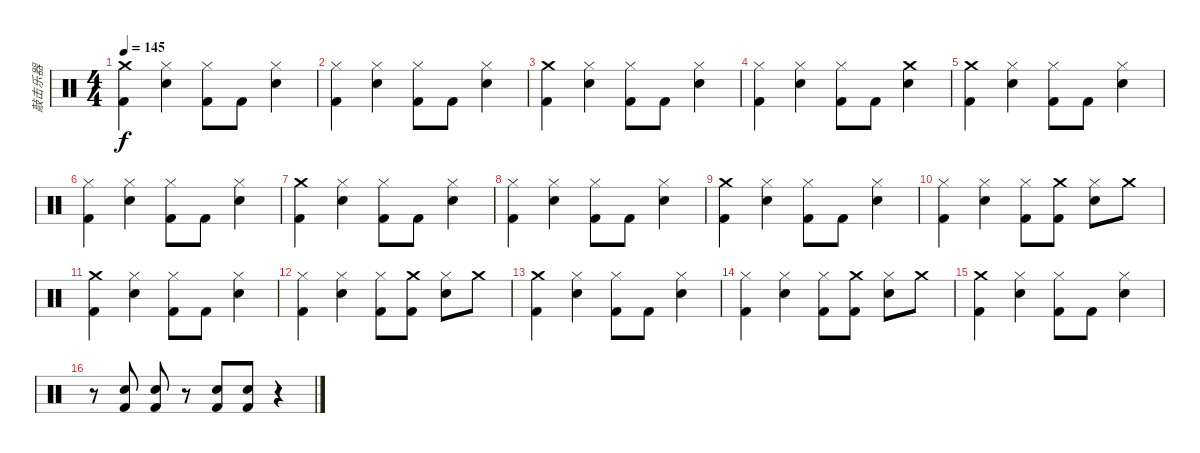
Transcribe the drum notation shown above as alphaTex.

\track ("敲击乐器" "敲击乐器") {instrument percussion}
\staff {score}
\articulation defaults
\ts (4 4)
\tempo 145
\clef neutral
\ks c
("Crash medium (hit)" "Kick (hit) 2").4{dy f} ("Hi-Hat (closed)" "Electric Snare (hit)").4 ("Hi-Hat (closed)" "Kick (hit) 2").8 "Kick (hit) 2".8 ("Hi-Hat (closed)" "Electric Snare (hit)").4 |
("Hi-Hat (closed)" "Kick (hit) 2").4 ("Hi-Hat (closed)" "Electric Snare (hit)").4 ("Hi-Hat (closed)" "Kick (hit) 2").8 "Kick (hit) 2".8 ("Hi-Hat (closed)" "Electric Snare (hit)").4 |
("Crash medium (hit)" "Kick (hit) 2").4 ("Hi-Hat (closed)" "Electric Snare (hit)").4 ("Hi-Hat (closed)" "Kick (hit) 2").8 "Kick (hit) 2".8 ("Hi-Hat (closed)" "Electric Snare (hit)").4 |
("Hi-Hat (closed)" "Kick (hit) 2").4 ("Hi-Hat (closed)" "Electric Snare (hit)").4 ("Hi-Hat (closed)" "Kick (hit) 2").8 "Kick (hit) 2".8 ("Crash medium (hit)" "Electric Snare (hit)").4 |
("Crash medium (hit)" "Kick (hit) 2").4 ("Hi-Hat (closed)" "Electric Snare (hit)").4 ("Hi-Hat (closed)" "Kick (hit) 2").8 "Kick (hit) 2".8 ("Hi-Hat (closed)" "Electric Snare (hit)").4 |
("Hi-Hat (closed)" "Kick (hit) 2").4 ("Hi-Hat (closed)" "Electric Snare (hit)").4 ("Hi-Hat (closed)" "Kick (hit) 2").8 "Kick (hit) 2".8 ("Hi-Hat (closed)" "Electric Snare (hit)").4 |
("Crash medium (hit)" "Kick (hit) 2").4 ("Hi-Hat (closed)" "Electric Snare (hit)").4 ("Hi-Hat (closed)" "Kick (hit) 2").8 "Kick (hit) 2".8 ("Hi-Hat (closed)" "Electric Snare (hit)").4 |
("Hi-Hat (closed)" "Kick (hit) 2").4 ("Hi-Hat (closed)" "Electric Snare (hit)").4 ("Hi-Hat (closed)" "Kick (hit) 2").8 "Kick (hit) 2".8 ("Hi-Hat (closed)" "Electric Snare (hit)").4 |
("Crash medium (hit)" "Kick (hit) 2").4 ("Hi-Hat (closed)" "Electric Snare (hit)").4 ("Hi-Hat (closed)" "Kick (hit) 2").8 "Kick (hit) 2".8 ("Hi-Hat (closed)" "Electric Snare (hit)").4 |
("Hi-Hat (closed)" "Kick (hit) 2").4 ("Hi-Hat (closed)" "Electric Snare (hit)").4 ("Hi-Hat (closed)" "Kick (hit) 2").8 ("Crash medium (hit)" "Kick (hit) 2").8 ("Hi-Hat (closed)" "Electric Snare (hit)").8 "Crash medium (hit)".8 |
("Crash medium (hit)" "Kick (hit) 2").4 ("Hi-Hat (closed)" "Electric Snare (hit)").4 ("Hi-Hat (closed)" "Kick (hit) 2").8 "Kick (hit) 2".8 ("Hi-Hat (closed)" "Electric Snare (hit)").4 |
("Hi-Hat (closed)" "Kick (hit) 2").4 ("Hi-Hat (closed)" "Electric Snare (hit)").4 ("Hi-Hat (closed)" "Kick (hit) 2").8 ("Crash medium (hit)" "Kick (hit) 2").8 ("Hi-Hat (closed)" "Electric Snare (hit)").8 "Crash medium (hit)".8 |
("Crash medium (hit)" "Kick (hit) 2").4 ("Hi-Hat (closed)" "Electric Snare (hit)").4 ("Hi-Hat (closed)" "Kick (hit) 2").8 "Kick (hit) 2".8 ("Hi-Hat (closed)" "Electric Snare (hit)").4 |
("Hi-Hat (closed)" "Kick (hit) 2").4 ("Hi-Hat (closed)" "Electric Snare (hit)").4 ("Hi-Hat (closed)" "Kick (hit) 2").8 ("Crash medium (hit)" "Kick (hit) 2").8 ("Hi-Hat (closed)" "Electric Snare (hit)").8 "Crash medium (hit)".8 |
("Crash medium (hit)" "Kick (hit) 2").4 ("Hi-Hat (closed)" "Electric Snare (hit)").4 ("Hi-Hat (closed)" "Kick (hit) 2").8 "Kick (hit) 2".8 ("Hi-Hat (closed)" "Electric Snare (hit)").4 |
r.8 ("Electric Snare (hit)" "Kick (hit) 2").8 ("Electric Snare (hit)" "Kick (hit) 2").8 r.8 ("Electric Snare (hit)" "Kick (hit) 2").8 ("Electric Snare (hit)" "Kick (hit) 2").8 r.4
